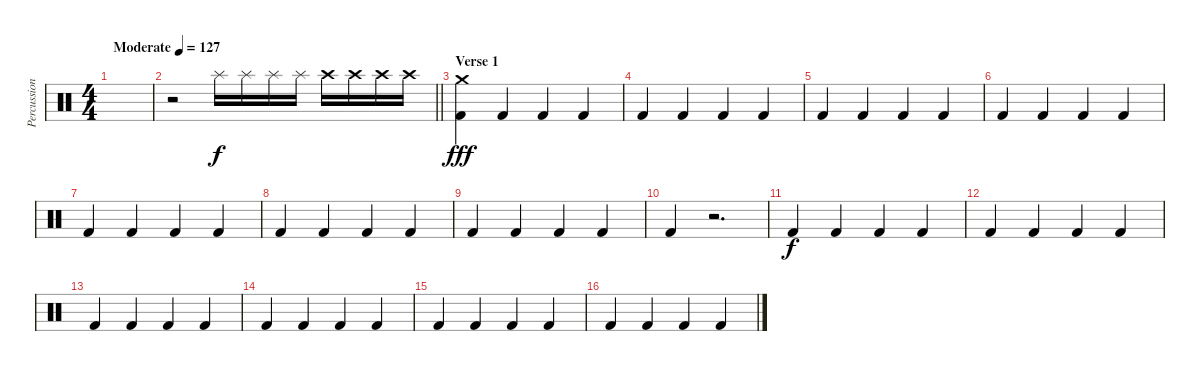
\track ("Percussion" "Percussion") {instrument percussion}
\staff {score}
\articulation defaults
\ts (4 4)
\tempo (127 "Moderate")
\clef neutral
\ks c
|
\barLineRight lightlight
r.2 "Splash (hit)".16 "Splash (hit)".16 "Splash (hit)".16 "Splash (hit)".16 "Crash high (hit)".16 "Crash high (hit)".16 "Crash high (hit)".16 "Crash high (hit)".16 |
\section ("" "Verse 1")
("Crash medium (hit)" "Kick (hit) 2").4{dy fff} "Kick (hit) 2".4 "Kick (hit) 2".4 "Kick (hit) 2".4 |
"Kick (hit) 2".4 "Kick (hit) 2".4 "Kick (hit) 2".4 "Kick (hit) 2".4 |
"Kick (hit) 2".4 "Kick (hit) 2".4 "Kick (hit) 2".4 "Kick (hit) 2".4 |
"Kick (hit) 2".4 "Kick (hit) 2".4 "Kick (hit) 2".4 "Kick (hit) 2".4 |
"Kick (hit) 2".4 "Kick (hit) 2".4 "Kick (hit) 2".4 "Kick (hit) 2".4 |
"Kick (hit) 2".4 "Kick (hit) 2".4 "Kick (hit) 2".4 "Kick (hit) 2".4 |
"Kick (hit) 2".4 "Kick (hit) 2".4 "Kick (hit) 2".4 "Kick (hit) 2".4 |
"Kick (hit) 2".4 r.2{d} |
"Kick (hit) 2".4{dy f} "Kick (hit) 2".4 "Kick (hit) 2".4 "Kick (hit) 2".4 |
"Kick (hit) 2".4 "Kick (hit) 2".4 "Kick (hit) 2".4 "Kick (hit) 2".4 |
"Kick (hit) 2".4 "Kick (hit) 2".4 "Kick (hit) 2".4 "Kick (hit) 2".4 |
"Kick (hit) 2".4 "Kick (hit) 2".4 "Kick (hit) 2".4 "Kick (hit) 2".4 |
"Kick (hit) 2".4 "Kick (hit) 2".4 "Kick (hit) 2".4 "Kick (hit) 2".4 |
"Kick (hit) 2".4 "Kick (hit) 2".4 "Kick (hit) 2".4 "Kick (hit) 2".4
